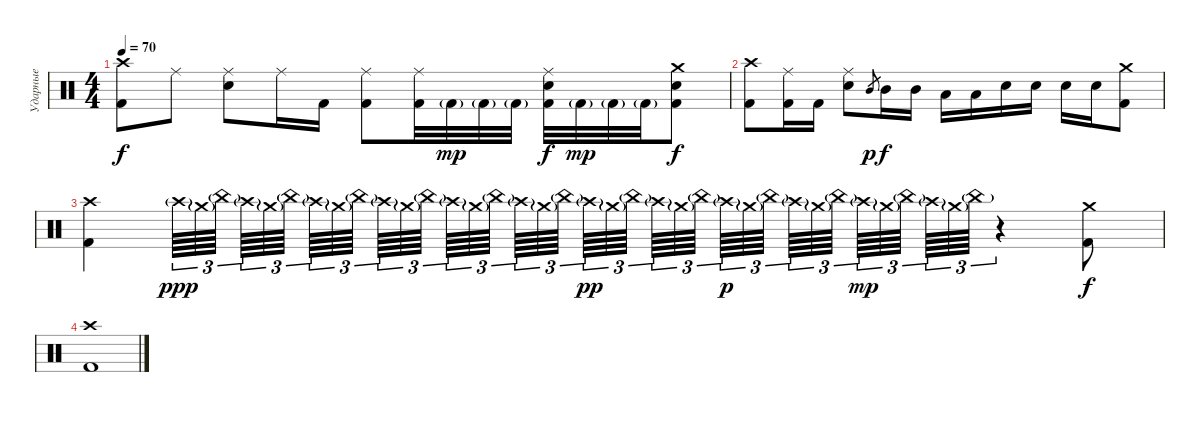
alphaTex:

\track ("Ударные" "Ударные") {instrument percussion}
\staff {score}
\articulation defaults
\ts (4 4)
\tempo 70
\clef neutral
\ks c
("Kick (hit) 2" "Crash high (hit)").8{dy f} "Ride (middle)".8 ("Ride (middle)" "Electric Snare (hit)").8 "Ride (middle)".16 "Kick (hit) 2".16 ("Ride (middle)" "Kick (hit) 2").8 ("Kick (hit) 2" "Ride (middle)").32 "Kick (hit) 2"{g}.32{dy mp} "Kick (hit) 2"{g}.32 "Kick (hit) 2"{g}.32 ("Kick (hit) 2" "Electric Snare (hit)" "Ride (middle)").32{dy f} "Kick (hit) 2"{g}.32{dy mp} "Kick (hit) 2"{g}.32 "Kick (hit) 2"{g}.32 ("Kick (hit) 2" "Electric Snare (hit)" "Crash medium (hit)").8{dy f} |
("Kick (hit) 2" "Crash high (hit)").8 ("Ride (middle)" "Kick (hit) 2").16 "Kick (hit) 2".16 ("Electric Snare (hit)" "Ride (middle)").8 "Mid Tom (hit)".8{gr dy p} "Mid Tom (hit)".16{dy f} "Mid Tom (hit)".16 "Low Tom (hit)".16 "Low Tom (hit)".16 "Electric Snare (hit)".16 "Electric Snare (hit)".16 "Electric Snare (hit)".16 "Electric Snare (hit)".16 ("Kick (hit) 2" "Crash medium (hit)").8 |
("Kick (hit) 2" "Crash high (hit)").4 "Crash high (hit)"{g}.64{tu (3 2) dy ppp} "Crash medium (hit)"{g}.64{tu (3 2)} "China (hit)"{g}.64{tu (3 2)} "Crash high (hit)"{g}.64{tu (3 2)} "Crash medium (hit)"{g}.64{tu (3 2)} "China (hit)"{g}.64{tu (3 2)} "Crash high (hit)"{g}.64{tu (3 2)} "Crash medium (hit)"{g}.64{tu (3 2)} "China (hit)"{g}.64{tu (3 2)} "Crash high (hit)"{g}.64{tu (3 2)} "Crash medium (hit)"{g}.64{tu (3 2)} "China (hit)"{g}.64{tu (3 2)} "Crash high (hit)"{g}.64{tu (3 2)} "Crash medium (hit)"{g}.64{tu (3 2)} "China (hit)"{g}.64{tu (3 2)} "Crash high (hit)"{g}.64{tu (3 2)} "Crash medium (hit)"{g}.64{tu (3 2)} "China (hit)"{g}.64{tu (3 2)} "Crash high (hit)"{g}.64{tu (3 2) dy pp} "Crash medium (hit)"{g}.64{tu (3 2)} "China (hit)"{g}.64{tu (3 2)} "Crash high (hit)"{g}.64{tu (3 2)} "Crash medium (hit)"{g}.64{tu (3 2)} "China (hit)"{g}.64{tu (3 2)} "Crash high (hit)"{g}.64{tu (3 2) dy p} "Crash medium (hit)"{g}.64{tu (3 2)} "China (hit)"{g}.64{tu (3 2)} "Crash high (hit)"{g}.64{tu (3 2)} "Crash medium (hit)"{g}.64{tu (3 2)} "China (hit)"{g}.64{tu (3 2)} "Crash high (hit)"{g}.64{tu (3 2) dy mp} "Crash medium (hit)"{g}.64{tu (3 2)} "China (hit)"{g}.64{tu (3 2)} "Crash high (hit)"{g}.64{tu (3 2)} "Crash medium (hit)"{g}.64{tu (3 2)} "China (hit)"{g}.64{tu (3 2)} r.4 ("Kick (hit) 2" "Crash medium (hit)").8{dy f} |
("Kick (hit) 2" "Crash high (hit)").1
